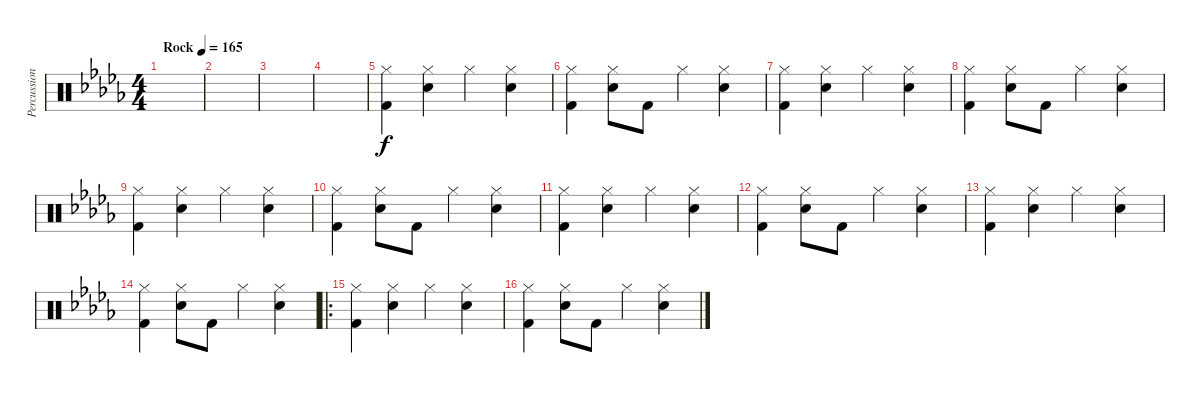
\track ("Percussion" "Percussion") {instrument percussion}
\staff {score}
\articulation defaults
\ts (4 4)
\tempo (165 "Rock")
\clef neutral
\ks db
|
|
|
|
("Hi-Hat (closed)" "Kick (hit) 2").4 ("Hi-Hat (closed)" "Snare (hit) 2").4 "Hi-Hat (closed)".4 ("Hi-Hat (closed)" "Snare (hit) 2").4 |
("Hi-Hat (closed)" "Kick (hit) 2").4 ("Hi-Hat (closed)" "Snare (hit) 2").8 "Kick (hit) 2".8 "Hi-Hat (closed)".4 ("Hi-Hat (closed)" "Snare (hit) 2").4 |
("Hi-Hat (closed)" "Kick (hit) 2").4 ("Hi-Hat (closed)" "Snare (hit) 2").4 "Hi-Hat (closed)".4 ("Hi-Hat (closed)" "Snare (hit) 2").4 |
("Hi-Hat (closed)" "Kick (hit) 2").4 ("Hi-Hat (closed)" "Snare (hit) 2").8 "Kick (hit) 2".8 "Hi-Hat (closed)".4 ("Hi-Hat (closed)" "Snare (hit) 2").4 |
("Hi-Hat (closed)" "Kick (hit) 2").4 ("Hi-Hat (closed)" "Snare (hit) 2").4 "Hi-Hat (closed)".4 ("Hi-Hat (closed)" "Snare (hit) 2").4 |
("Hi-Hat (closed)" "Kick (hit) 2").4 ("Hi-Hat (closed)" "Snare (hit) 2").8 "Kick (hit) 2".8 "Hi-Hat (closed)".4 ("Hi-Hat (closed)" "Snare (hit) 2").4 |
("Hi-Hat (closed)" "Kick (hit) 2").4 ("Hi-Hat (closed)" "Snare (hit) 2").4 "Hi-Hat (closed)".4 ("Hi-Hat (closed)" "Snare (hit) 2").4 |
("Hi-Hat (closed)" "Kick (hit) 2").4 ("Hi-Hat (closed)" "Snare (hit) 2").8 "Kick (hit) 2".8 "Hi-Hat (closed)".4 ("Hi-Hat (closed)" "Snare (hit) 2").4 |
("Hi-Hat (closed)" "Kick (hit) 2").4 ("Hi-Hat (closed)" "Snare (hit) 2").4 "Hi-Hat (closed)".4 ("Hi-Hat (closed)" "Snare (hit) 2").4 |
("Hi-Hat (closed)" "Kick (hit) 2").4 ("Hi-Hat (closed)" "Snare (hit) 2").8 "Kick (hit) 2".8 "Hi-Hat (closed)".4 ("Hi-Hat (closed)" "Snare (hit) 2").4 |
\ro
("Hi-Hat (closed)" "Kick (hit) 2").4 ("Hi-Hat (closed)" "Snare (hit) 2").4 "Hi-Hat (closed)".4 ("Hi-Hat (closed)" "Snare (hit) 2").4 |
("Hi-Hat (closed)" "Kick (hit) 2").4 ("Hi-Hat (closed)" "Snare (hit) 2").8 "Kick (hit) 2".8 "Hi-Hat (closed)".4 ("Hi-Hat (closed)" "Snare (hit) 2").4
